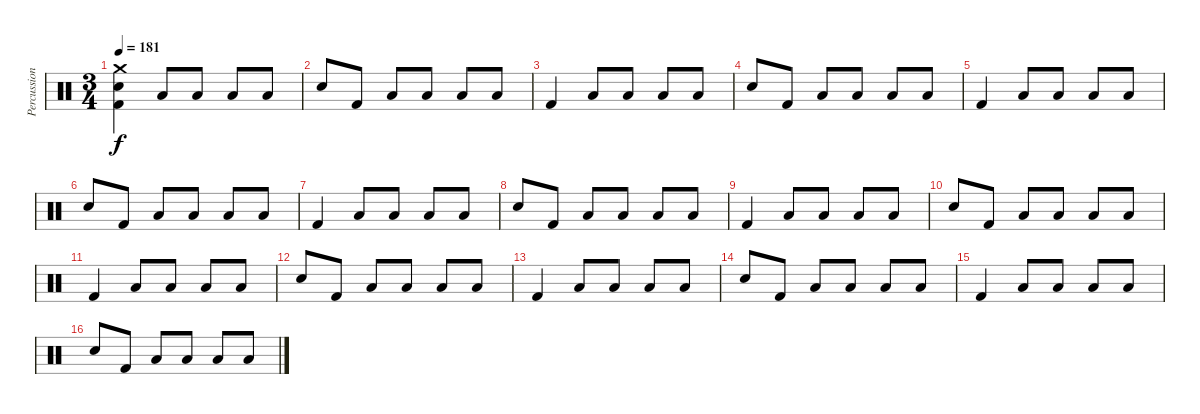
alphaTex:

\track ("Percussion" "Percussion") {instrument percussion}
\staff {score}
\articulation defaults
\ts (3 4)
\tempo 181
\clef neutral
\ks c
("Crash medium (hit)" "Snare (hit) 2" "Kick (hit) 2").4{dy f} "Low Floor Tom (hit)".8 "Low Floor Tom (hit)".8 "Low Floor Tom (hit)".8 "Low Floor Tom (hit)".8 |
"Snare (hit) 2".8 "Kick (hit) 2".8 "Low Floor Tom (hit)".8 "Low Floor Tom (hit)".8 "Low Floor Tom (hit)".8 "Low Floor Tom (hit)".8 |
"Kick (hit) 2".4 "Low Floor Tom (hit)".8 "Low Floor Tom (hit)".8 "Low Floor Tom (hit)".8 "Low Floor Tom (hit)".8 |
"Snare (hit) 2".8 "Kick (hit) 2".8 "Low Floor Tom (hit)".8 "Low Floor Tom (hit)".8 "Low Floor Tom (hit)".8 "Low Floor Tom (hit)".8 |
"Kick (hit) 2".4 "Low Floor Tom (hit)".8 "Low Floor Tom (hit)".8 "Low Floor Tom (hit)".8 "Low Floor Tom (hit)".8 |
"Snare (hit) 2".8 "Kick (hit) 2".8 "Low Floor Tom (hit)".8 "Low Floor Tom (hit)".8 "Low Floor Tom (hit)".8 "Low Floor Tom (hit)".8 |
"Kick (hit) 2".4 "Low Floor Tom (hit)".8 "Low Floor Tom (hit)".8 "Low Floor Tom (hit)".8 "Low Floor Tom (hit)".8 |
"Snare (hit) 2".8 "Kick (hit) 2".8 "Low Floor Tom (hit)".8 "Low Floor Tom (hit)".8 "Low Floor Tom (hit)".8 "Low Floor Tom (hit)".8 |
"Kick (hit) 2".4 "Low Floor Tom (hit)".8 "Low Floor Tom (hit)".8 "Low Floor Tom (hit)".8 "Low Floor Tom (hit)".8 |
"Snare (hit) 2".8 "Kick (hit) 2".8 "Low Floor Tom (hit)".8 "Low Floor Tom (hit)".8 "Low Floor Tom (hit)".8 "Low Floor Tom (hit)".8 |
"Kick (hit) 2".4 "Low Floor Tom (hit)".8 "Low Floor Tom (hit)".8 "Low Floor Tom (hit)".8 "Low Floor Tom (hit)".8 |
"Snare (hit) 2".8 "Kick (hit) 2".8 "Low Floor Tom (hit)".8 "Low Floor Tom (hit)".8 "Low Floor Tom (hit)".8 "Low Floor Tom (hit)".8 |
"Kick (hit) 2".4 "Low Floor Tom (hit)".8 "Low Floor Tom (hit)".8 "Low Floor Tom (hit)".8 "Low Floor Tom (hit)".8 |
"Snare (hit) 2".8 "Kick (hit) 2".8 "Low Floor Tom (hit)".8 "Low Floor Tom (hit)".8 "Low Floor Tom (hit)".8 "Low Floor Tom (hit)".8 |
"Kick (hit) 2".4 "Low Floor Tom (hit)".8 "Low Floor Tom (hit)".8 "Low Floor Tom (hit)".8 "Low Floor Tom (hit)".8 |
"Snare (hit) 2".8 "Kick (hit) 2".8 "Low Floor Tom (hit)".8 "Low Floor Tom (hit)".8 "Low Floor Tom (hit)".8 "Low Floor Tom (hit)".8
